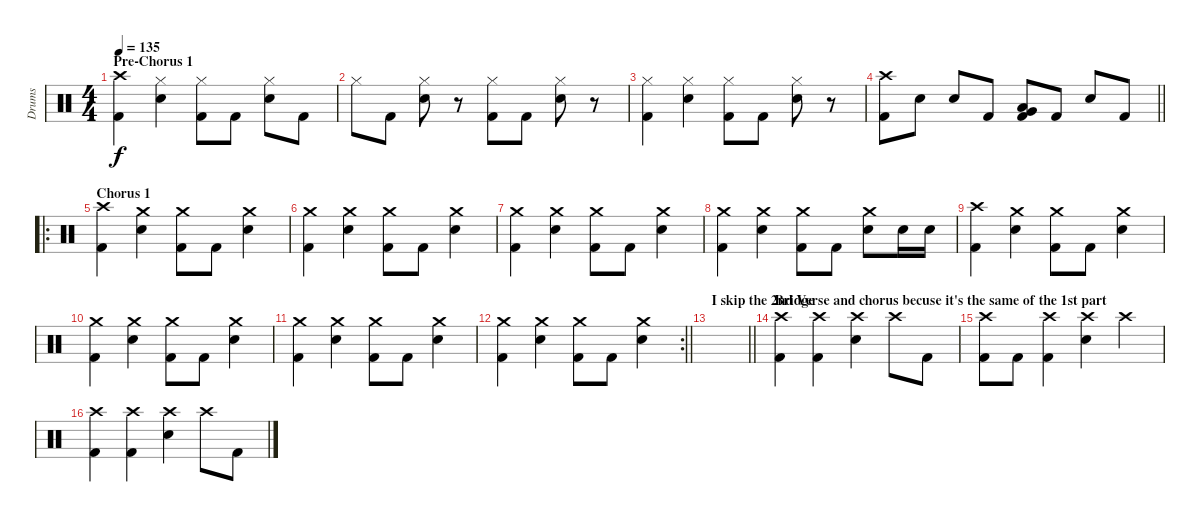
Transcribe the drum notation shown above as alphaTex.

\track ("Drums" "Drums") {instrument percussion}
\staff {score}
\articulation defaults
\ts (4 4)
\section ("" "Pre-Chorus 1")
\tempo 135
\clef neutral
\ks c
("Crash high (hit)" "Kick (hit) 2").4{dy f} ("Hi-Hat (closed)" "Electric Snare (hit)").4 ("Hi-Hat (closed)" "Kick (hit) 2").8 "Kick (hit) 2".8 ("Hi-Hat (closed)" "Electric Snare (hit)").8 "Kick (hit) 2".8 |
"Hi-Hat (closed)".8 "Kick (hit) 2".8 ("Hi-Hat (closed)" "Electric Snare (hit)").8 r.8 ("Hi-Hat (closed)" "Kick (hit) 2").8 "Kick (hit) 2".8 ("Hi-Hat (closed)" "Electric Snare (hit)").8 r.8 |
("Hi-Hat (closed)" "Kick (hit) 2").4 ("Hi-Hat (closed)" "Electric Snare (hit)").4 ("Hi-Hat (closed)" "Kick (hit) 2").8 "Kick (hit) 2".8 ("Hi-Hat (closed)" "Electric Snare (hit)").8 r.8 |
\barLineRight lightlight
("Crash high (hit)" "Kick (hit) 2").8 "Electric Snare (hit)".8 "Electric Snare (hit)".8 "Kick (hit) 2".8 ("Very Low Tom (hit)" "Low Tom (hit)" "Kick (hit) 2").8 "Kick (hit) 2".8 "Electric Snare (hit)".8 "Kick (hit) 2".8 |
\ro
\section ("" "Chorus 1")
("Crash high (hit)" "Kick (hit) 2").4 ("Crash medium (hit)" "Electric Snare (hit)").4 ("Crash medium (hit)" "Kick (hit) 2").8 "Kick (hit) 2".8 ("Crash medium (hit)" "Electric Snare (hit)").4 |
("Crash medium (hit)" "Kick (hit) 2").4 ("Crash medium (hit)" "Electric Snare (hit)").4 ("Crash medium (hit)" "Kick (hit) 2").8 "Kick (hit) 2".8 ("Crash medium (hit)" "Electric Snare (hit)").4 |
("Crash medium (hit)" "Kick (hit) 2").4 ("Crash medium (hit)" "Electric Snare (hit)").4 ("Crash medium (hit)" "Kick (hit) 2").8 "Kick (hit) 2".8 ("Crash medium (hit)" "Electric Snare (hit)").4 |
("Crash medium (hit)" "Kick (hit) 2").4 ("Crash medium (hit)" "Electric Snare (hit)").4 ("Crash medium (hit)" "Kick (hit) 2").8 "Kick (hit) 2".8 ("Crash medium (hit)" "Electric Snare (hit)").8 "Electric Snare (hit)".16 "Electric Snare (hit)".16 |
("Crash high (hit)" "Kick (hit) 2").4 ("Crash medium (hit)" "Electric Snare (hit)").4 ("Crash medium (hit)" "Kick (hit) 2").8 "Kick (hit) 2".8 ("Crash medium (hit)" "Electric Snare (hit)").4 |
("Crash medium (hit)" "Kick (hit) 2").4 ("Crash medium (hit)" "Electric Snare (hit)").4 ("Crash medium (hit)" "Kick (hit) 2").8 "Kick (hit) 2".8 ("Crash medium (hit)" "Electric Snare (hit)").4 |
("Crash medium (hit)" "Kick (hit) 2").4 ("Crash medium (hit)" "Electric Snare (hit)").4 ("Crash medium (hit)" "Kick (hit) 2").8 "Kick (hit) 2".8 ("Crash medium (hit)" "Electric Snare (hit)").4 |
\rc 2
\barLineRight lightlight
("Crash medium (hit)" "Kick (hit) 2").4 ("Crash medium (hit)" "Electric Snare (hit)").4 ("Crash medium (hit)" "Kick (hit) 2").8 "Kick (hit) 2".8 ("Crash medium (hit)" "Electric Snare (hit)").4 |
\section ("" "I skip the 2nd Verse and chorus becuse it's the same of the 1st part")
\barLineRight lightlight
|
\section ("" "Bridge")
("Crash high (hit)" "Kick (hit) 2").4 ("Crash high (hit)" "Kick (hit) 2").4 ("Crash high (hit)" "Electric Snare (hit)").4 "Crash high (hit)".8 "Kick (hit) 2".8 |
("Crash high (hit)" "Kick (hit) 2").8 "Kick (hit) 2".8 ("Crash high (hit)" "Kick (hit) 2").4 ("Crash high (hit)" "Electric Snare (hit)").4 "Crash high (hit)".4 |
("Crash high (hit)" "Kick (hit) 2").4 ("Crash high (hit)" "Kick (hit) 2").4 ("Crash high (hit)" "Electric Snare (hit)").4 "Crash high (hit)".8 "Kick (hit) 2".8
